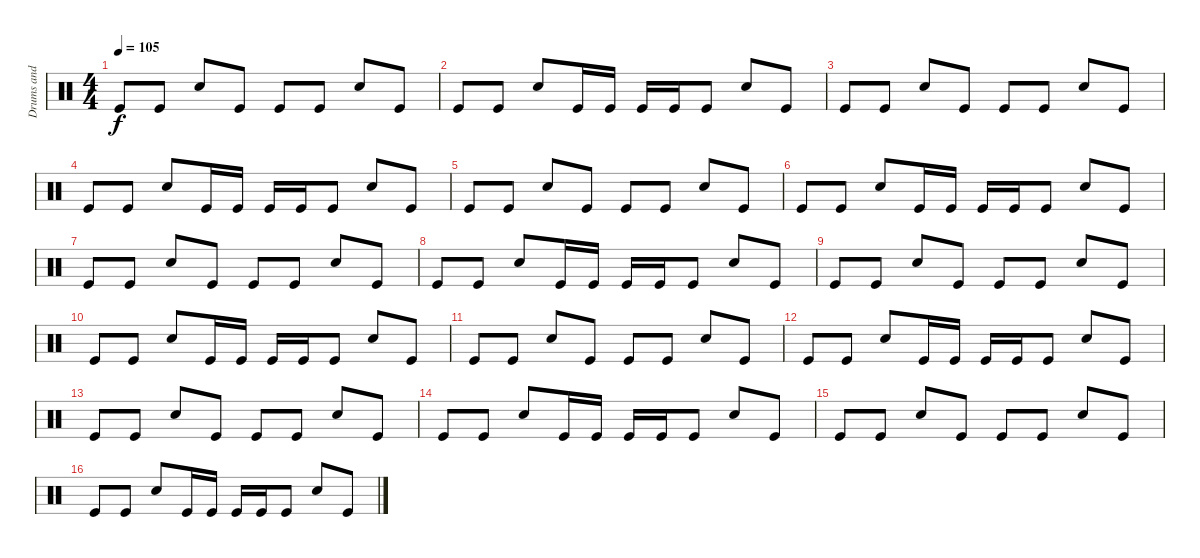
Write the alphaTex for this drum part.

\track ("Drums and loops" "Drums and ") {instrument percussion}
\staff {score}
\articulation defaults
\ts (4 4)
\tempo 105
\clef neutral
\ks c "Kick (hit)".8{dy f} "Kick (hit)".8 "Electric Snare (hit)".8 "Kick (hit)".8 "Kick (hit)".8 "Kick (hit)".8 "Electric Snare (hit)".8 "Kick (hit)".8
|
"Kick (hit)".8 "Kick (hit)".8 "Electric Snare (hit)".8 "Kick (hit)".16 "Kick (hit)".16 "Kick (hit)".16 "Kick (hit)".16 "Kick (hit)".8 "Electric Snare (hit)".8 "Kick (hit)".8 |
"Kick (hit)".8 "Kick (hit)".8 "Electric Snare (hit)".8 "Kick (hit)".8 "Kick (hit)".8 "Kick (hit)".8 "Electric Snare (hit)".8 "Kick (hit)".8 |
"Kick (hit)".8 "Kick (hit)".8 "Electric Snare (hit)".8 "Kick (hit)".16 "Kick (hit)".16 "Kick (hit)".16 "Kick (hit)".16 "Kick (hit)".8 "Electric Snare (hit)".8 "Kick (hit)".8 |
"Kick (hit)".8 "Kick (hit)".8 "Electric Snare (hit)".8 "Kick (hit)".8 "Kick (hit)".8 "Kick (hit)".8 "Electric Snare (hit)".8 "Kick (hit)".8 |
"Kick (hit)".8 "Kick (hit)".8 "Electric Snare (hit)".8 "Kick (hit)".16 "Kick (hit)".16 "Kick (hit)".16 "Kick (hit)".16 "Kick (hit)".8 "Electric Snare (hit)".8 "Kick (hit)".8 |
"Kick (hit)".8 "Kick (hit)".8 "Electric Snare (hit)".8 "Kick (hit)".8 "Kick (hit)".8 "Kick (hit)".8 "Electric Snare (hit)".8 "Kick (hit)".8 |
"Kick (hit)".8 "Kick (hit)".8 "Electric Snare (hit)".8 "Kick (hit)".16 "Kick (hit)".16 "Kick (hit)".16 "Kick (hit)".16 "Kick (hit)".8 "Electric Snare (hit)".8 "Kick (hit)".8 |
"Kick (hit)".8 "Kick (hit)".8 "Electric Snare (hit)".8 "Kick (hit)".8 "Kick (hit)".8 "Kick (hit)".8 "Electric Snare (hit)".8 "Kick (hit)".8 |
"Kick (hit)".8 "Kick (hit)".8 "Electric Snare (hit)".8 "Kick (hit)".16 "Kick (hit)".16 "Kick (hit)".16 "Kick (hit)".16 "Kick (hit)".8 "Electric Snare (hit)".8 "Kick (hit)".8 |
"Kick (hit)".8 "Kick (hit)".8 "Electric Snare (hit)".8 "Kick (hit)".8 "Kick (hit)".8 "Kick (hit)".8 "Electric Snare (hit)".8 "Kick (hit)".8 |
"Kick (hit)".8 "Kick (hit)".8 "Electric Snare (hit)".8 "Kick (hit)".16 "Kick (hit)".16 "Kick (hit)".16 "Kick (hit)".16 "Kick (hit)".8 "Electric Snare (hit)".8 "Kick (hit)".8 |
"Kick (hit)".8 "Kick (hit)".8 "Electric Snare (hit)".8 "Kick (hit)".8 "Kick (hit)".8 "Kick (hit)".8 "Electric Snare (hit)".8 "Kick (hit)".8 |
"Kick (hit)".8 "Kick (hit)".8 "Electric Snare (hit)".8 "Kick (hit)".16 "Kick (hit)".16 "Kick (hit)".16 "Kick (hit)".16 "Kick (hit)".8 "Electric Snare (hit)".8 "Kick (hit)".8 |
"Kick (hit)".8 "Kick (hit)".8 "Electric Snare (hit)".8 "Kick (hit)".8 "Kick (hit)".8 "Kick (hit)".8 "Electric Snare (hit)".8 "Kick (hit)".8 |
"Kick (hit)".8 "Kick (hit)".8 "Electric Snare (hit)".8 "Kick (hit)".16 "Kick (hit)".16 "Kick (hit)".16 "Kick (hit)".16 "Kick (hit)".8 "Electric Snare (hit)".8 "Kick (hit)".8
